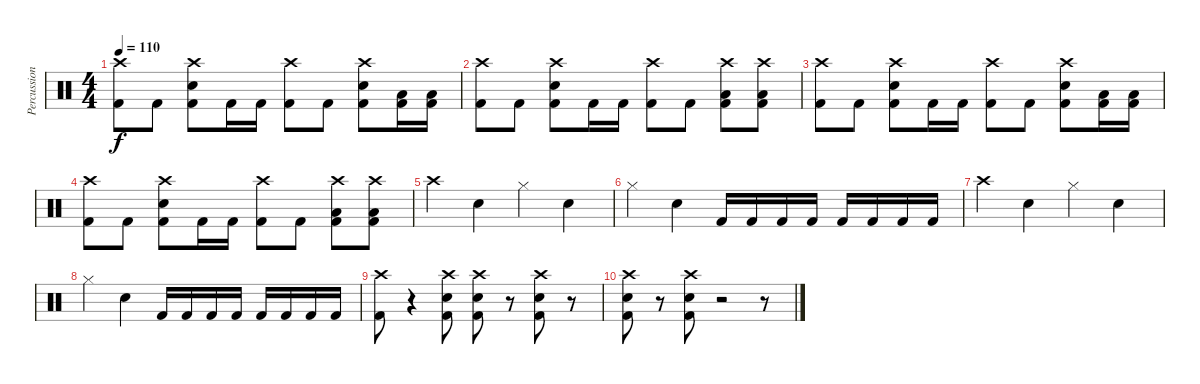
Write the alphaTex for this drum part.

\track ("Percussion" "Percussion") {instrument percussion}
\staff {score}
\articulation defaults
\ts (4 4)
\tempo 110
\clef neutral
\ks c
("Crash high (hit)" "Kick (hit) 2").8{dy f} "Kick (hit) 2".8 ("Crash high (hit)" "Snare (hit) 2" "Kick (hit) 2").8 "Kick (hit) 2".16 "Kick (hit) 2".16 ("Crash high (hit)" "Kick (hit) 2").8 "Kick (hit) 2".8 ("Crash high (hit)" "Snare (hit) 2" "Kick (hit) 2").8 ("Low Tom (hit)" "Kick (hit) 2").16 ("Low Floor Tom (hit)" "Kick (hit) 2").16 |
("Crash high (hit)" "Kick (hit) 2").8 "Kick (hit) 2".8 ("Crash high (hit)" "Snare (hit) 2" "Kick (hit) 2").8 "Kick (hit) 2".16 "Kick (hit) 2".16 ("Crash high (hit)" "Kick (hit) 2").8 "Kick (hit) 2".8 ("Crash high (hit)" "Low Tom (hit)" "Kick (hit) 2").8 ("Crash high (hit)" "Low Floor Tom (hit)" "Kick (hit) 2").8 |
("Crash high (hit)" "Kick (hit) 2").8 "Kick (hit) 2".8 ("Crash high (hit)" "Snare (hit) 2" "Kick (hit) 2").8 "Kick (hit) 2".16 "Kick (hit) 2".16 ("Crash high (hit)" "Kick (hit) 2").8 "Kick (hit) 2".8 ("Crash high (hit)" "Snare (hit) 2" "Kick (hit) 2").8 ("Low Tom (hit)" "Kick (hit) 2").16 ("Low Floor Tom (hit)" "Kick (hit) 2").16 |
("Crash high (hit)" "Kick (hit) 2").8 "Kick (hit) 2".8 ("Crash high (hit)" "Snare (hit) 2" "Kick (hit) 2").8 "Kick (hit) 2".16 "Kick (hit) 2".16 ("Crash high (hit)" "Kick (hit) 2").8 "Kick (hit) 2".8 ("Crash high (hit)" "Low Tom (hit)" "Kick (hit) 2").8 ("Crash high (hit)" "Low Floor Tom (hit)" "Kick (hit) 2").8 |
"Crash high (hit)".4 "Snare (hit) 2".4 "Hi-Hat (closed)".4 "Snare (hit) 2".4 |
"Hi-Hat (closed)".4 "Snare (hit) 2".4 "Kick (hit) 2".16 "Kick (hit) 2".16 "Kick (hit) 2".16 "Kick (hit) 2".16 "Kick (hit) 2".16 "Kick (hit) 2".16 "Kick (hit) 2".16 "Kick (hit) 2".16 |
"Crash high (hit)".4 "Snare (hit) 2".4 "Hi-Hat (closed)".4 "Snare (hit) 2".4 |
"Hi-Hat (closed)".4 "Snare (hit) 2".4 "Kick (hit) 2".16 "Kick (hit) 2".16 "Kick (hit) 2".16 "Kick (hit) 2".16 "Kick (hit) 2".16 "Kick (hit) 2".16 "Kick (hit) 2".16 "Kick (hit) 2".16 |
("Crash high (hit)" "Kick (hit) 2").8 r.4 ("Crash high (hit)" "Snare (hit) 2" "Kick (hit) 2").8 ("Crash high (hit)" "Snare (hit) 2" "Kick (hit) 2").8 r.8 ("Crash high (hit)" "Snare (hit) 2" "Kick (hit) 2").8 r.8 |
("Crash high (hit)" "Snare (hit) 2" "Kick (hit) 2").8 r.8 ("Crash high (hit)" "Snare (hit) 2" "Kick (hit) 2").8 r.2 r.8
